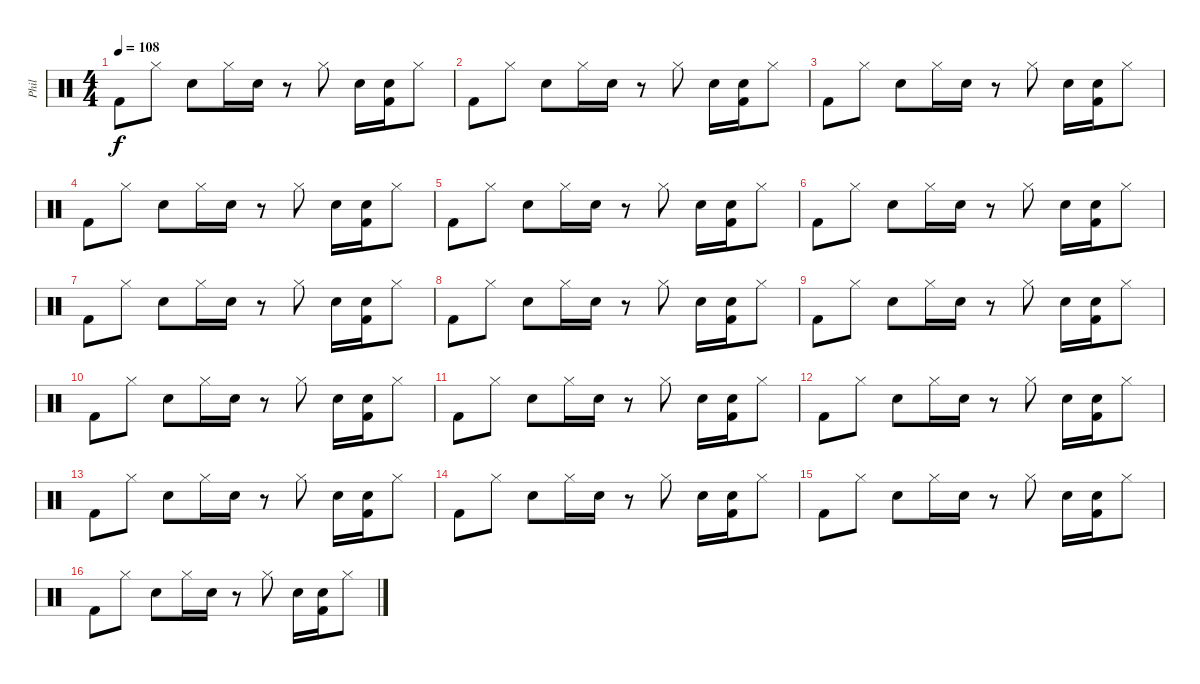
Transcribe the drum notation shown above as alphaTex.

\track ("Phil" "Phil") {instrument percussion}
\staff {score}
\articulation defaults
\ts (4 4)
\tempo 108
\clef neutral
\ks c "Kick (hit) 2".8{dy f} "Hi-Hat (closed)".8 "Electric Snare (hit)".8 "Hi-Hat (closed)".16 "Electric Snare (hit)".16
r.8 "Hi-Hat (closed)".8 "Electric Snare (hit)".16 ("Electric Snare (hit)" "Kick (hit) 2").16 "Hi-Hat (closed)".8 |
"Kick (hit) 2".8 "Hi-Hat (closed)".8 "Electric Snare (hit)".8 "Hi-Hat (closed)".16 "Electric Snare (hit)".16 r.8 "Hi-Hat (closed)".8 "Electric Snare (hit)".16 ("Electric Snare (hit)" "Kick (hit) 2").16 "Hi-Hat (closed)".8 |
"Kick (hit) 2".8 "Hi-Hat (closed)".8 "Electric Snare (hit)".8 "Hi-Hat (closed)".16 "Electric Snare (hit)".16 r.8 "Hi-Hat (closed)".8 "Electric Snare (hit)".16 ("Electric Snare (hit)" "Kick (hit) 2").16 "Hi-Hat (closed)".8 |
"Kick (hit) 2".8 "Hi-Hat (closed)".8 "Electric Snare (hit)".8 "Hi-Hat (closed)".16 "Electric Snare (hit)".16 r.8 "Hi-Hat (closed)".8 "Electric Snare (hit)".16 ("Electric Snare (hit)" "Kick (hit) 2").16 "Hi-Hat (closed)".8 |
"Kick (hit) 2".8 "Hi-Hat (closed)".8 "Electric Snare (hit)".8 "Hi-Hat (closed)".16 "Electric Snare (hit)".16 r.8 "Hi-Hat (closed)".8 "Electric Snare (hit)".16 ("Electric Snare (hit)" "Kick (hit) 2").16 "Hi-Hat (closed)".8 |
"Kick (hit) 2".8 "Hi-Hat (closed)".8 "Electric Snare (hit)".8 "Hi-Hat (closed)".16 "Electric Snare (hit)".16 r.8 "Hi-Hat (closed)".8 "Electric Snare (hit)".16 ("Electric Snare (hit)" "Kick (hit) 2").16 "Hi-Hat (closed)".8 |
"Kick (hit) 2".8 "Hi-Hat (closed)".8 "Electric Snare (hit)".8 "Hi-Hat (closed)".16 "Electric Snare (hit)".16 r.8 "Hi-Hat (closed)".8 "Electric Snare (hit)".16 ("Electric Snare (hit)" "Kick (hit) 2").16 "Hi-Hat (closed)".8 |
"Kick (hit) 2".8 "Hi-Hat (closed)".8 "Electric Snare (hit)".8 "Hi-Hat (closed)".16 "Electric Snare (hit)".16 r.8 "Hi-Hat (closed)".8 "Electric Snare (hit)".16 ("Electric Snare (hit)" "Kick (hit) 2").16 "Hi-Hat (closed)".8 |
"Kick (hit) 2".8 "Hi-Hat (closed)".8 "Electric Snare (hit)".8 "Hi-Hat (closed)".16 "Electric Snare (hit)".16 r.8 "Hi-Hat (closed)".8 "Electric Snare (hit)".16 ("Electric Snare (hit)" "Kick (hit) 2").16 "Hi-Hat (closed)".8 |
"Kick (hit) 2".8 "Hi-Hat (closed)".8 "Electric Snare (hit)".8 "Hi-Hat (closed)".16 "Electric Snare (hit)".16 r.8 "Hi-Hat (closed)".8 "Electric Snare (hit)".16 ("Electric Snare (hit)" "Kick (hit) 2").16 "Hi-Hat (closed)".8 |
"Kick (hit) 2".8 "Hi-Hat (closed)".8 "Electric Snare (hit)".8 "Hi-Hat (closed)".16 "Electric Snare (hit)".16 r.8 "Hi-Hat (closed)".8 "Electric Snare (hit)".16 ("Electric Snare (hit)" "Kick (hit) 2").16 "Hi-Hat (closed)".8 |
"Kick (hit) 2".8 "Hi-Hat (closed)".8 "Electric Snare (hit)".8 "Hi-Hat (closed)".16 "Electric Snare (hit)".16 r.8 "Hi-Hat (closed)".8 "Electric Snare (hit)".16 ("Electric Snare (hit)" "Kick (hit) 2").16 "Hi-Hat (closed)".8 |
"Kick (hit) 2".8 "Hi-Hat (closed)".8 "Electric Snare (hit)".8 "Hi-Hat (closed)".16 "Electric Snare (hit)".16 r.8 "Hi-Hat (closed)".8 "Electric Snare (hit)".16 ("Electric Snare (hit)" "Kick (hit) 2").16 "Hi-Hat (closed)".8 |
"Kick (hit) 2".8 "Hi-Hat (closed)".8 "Electric Snare (hit)".8 "Hi-Hat (closed)".16 "Electric Snare (hit)".16 r.8 "Hi-Hat (closed)".8 "Electric Snare (hit)".16 ("Electric Snare (hit)" "Kick (hit) 2").16 "Hi-Hat (closed)".8 |
"Kick (hit) 2".8 "Hi-Hat (closed)".8 "Electric Snare (hit)".8 "Hi-Hat (closed)".16 "Electric Snare (hit)".16 r.8 "Hi-Hat (closed)".8 "Electric Snare (hit)".16 ("Electric Snare (hit)" "Kick (hit) 2").16 "Hi-Hat (closed)".8 |
"Kick (hit) 2".8 "Hi-Hat (closed)".8 "Electric Snare (hit)".8 "Hi-Hat (closed)".16 "Electric Snare (hit)".16 r.8 "Hi-Hat (closed)".8 "Electric Snare (hit)".16 ("Electric Snare (hit)" "Kick (hit) 2").16 "Hi-Hat (closed)".8
